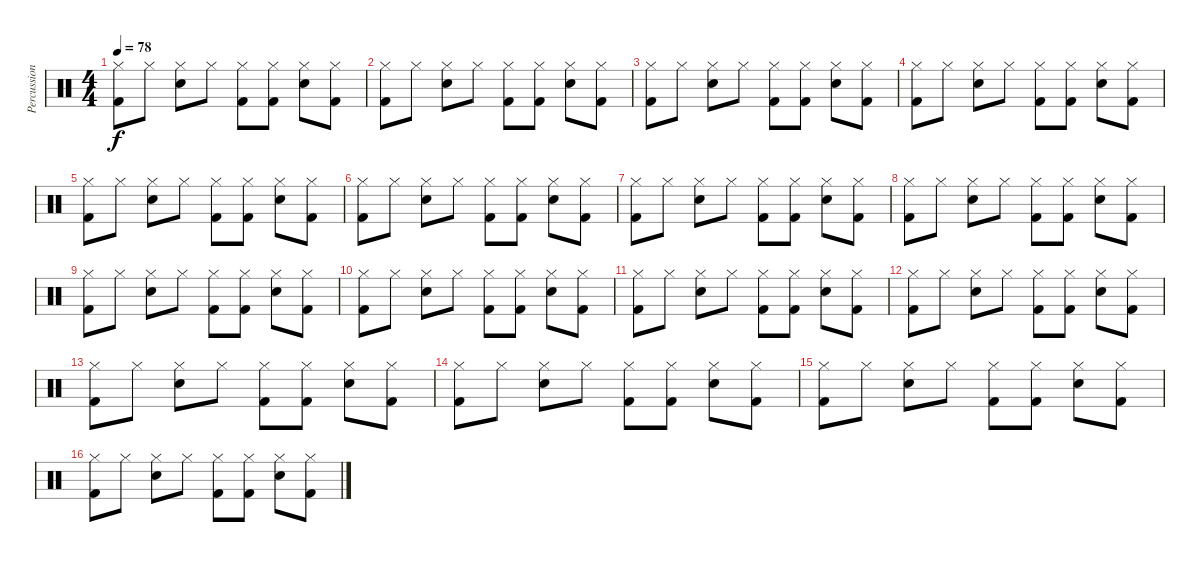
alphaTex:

\track ("Percussions" "Percussion") {instrument percussion}
\staff {score}
\articulation defaults
\ts (4 4)
\tempo 78
\clef neutral
\ks c
("Hi-Hat (closed)" "Kick (hit) 2").8{dy f} "Hi-Hat (closed)".8 ("Hi-Hat (closed)" "Electric Snare (hit)").8 "Hi-Hat (closed)".8 ("Hi-Hat (closed)" "Kick (hit) 2").8 ("Hi-Hat (closed)" "Kick (hit) 2").8 ("Hi-Hat (closed)" "Electric Snare (hit)").8 ("Hi-Hat (closed)" "Kick (hit) 2").8 |
("Hi-Hat (closed)" "Kick (hit) 2").8 "Hi-Hat (closed)".8 ("Hi-Hat (closed)" "Electric Snare (hit)").8 "Hi-Hat (closed)".8 ("Hi-Hat (closed)" "Kick (hit) 2").8 ("Hi-Hat (closed)" "Kick (hit) 2").8 ("Hi-Hat (closed)" "Electric Snare (hit)").8 ("Hi-Hat (closed)" "Kick (hit) 2").8 |
("Hi-Hat (closed)" "Kick (hit) 2").8 "Hi-Hat (closed)".8 ("Hi-Hat (closed)" "Electric Snare (hit)").8 "Hi-Hat (closed)".8 ("Hi-Hat (closed)" "Kick (hit) 2").8 ("Hi-Hat (closed)" "Kick (hit) 2").8 ("Hi-Hat (closed)" "Electric Snare (hit)").8 ("Hi-Hat (closed)" "Kick (hit) 2").8 |
("Hi-Hat (closed)" "Kick (hit) 2").8 "Hi-Hat (closed)".8 ("Hi-Hat (closed)" "Electric Snare (hit)").8 "Hi-Hat (closed)".8 ("Hi-Hat (closed)" "Kick (hit) 2").8 ("Hi-Hat (closed)" "Kick (hit) 2").8 ("Hi-Hat (closed)" "Electric Snare (hit)").8 ("Hi-Hat (closed)" "Kick (hit) 2").8 |
("Hi-Hat (closed)" "Kick (hit) 2").8 "Hi-Hat (closed)".8 ("Hi-Hat (closed)" "Electric Snare (hit)").8 "Hi-Hat (closed)".8 ("Hi-Hat (closed)" "Kick (hit) 2").8 ("Hi-Hat (closed)" "Kick (hit) 2").8 ("Hi-Hat (closed)" "Electric Snare (hit)").8 ("Hi-Hat (closed)" "Kick (hit) 2").8 |
("Hi-Hat (closed)" "Kick (hit) 2").8 "Hi-Hat (closed)".8 ("Hi-Hat (closed)" "Electric Snare (hit)").8 "Hi-Hat (closed)".8 ("Hi-Hat (closed)" "Kick (hit) 2").8 ("Hi-Hat (closed)" "Kick (hit) 2").8 ("Hi-Hat (closed)" "Electric Snare (hit)").8 ("Hi-Hat (closed)" "Kick (hit) 2").8 |
("Hi-Hat (closed)" "Kick (hit) 2").8 "Hi-Hat (closed)".8 ("Hi-Hat (closed)" "Electric Snare (hit)").8 "Hi-Hat (closed)".8 ("Hi-Hat (closed)" "Kick (hit) 2").8 ("Hi-Hat (closed)" "Kick (hit) 2").8 ("Hi-Hat (closed)" "Electric Snare (hit)").8 ("Hi-Hat (closed)" "Kick (hit) 2").8 |
("Hi-Hat (closed)" "Kick (hit) 2").8 "Hi-Hat (closed)".8 ("Hi-Hat (closed)" "Electric Snare (hit)").8 "Hi-Hat (closed)".8 ("Hi-Hat (closed)" "Kick (hit) 2").8 ("Hi-Hat (closed)" "Kick (hit) 2").8 ("Hi-Hat (closed)" "Electric Snare (hit)").8 ("Hi-Hat (closed)" "Kick (hit) 2").8 |
("Hi-Hat (closed)" "Kick (hit) 2").8 "Hi-Hat (closed)".8 ("Hi-Hat (closed)" "Electric Snare (hit)").8 "Hi-Hat (closed)".8 ("Hi-Hat (closed)" "Kick (hit) 2").8 ("Hi-Hat (closed)" "Kick (hit) 2").8 ("Hi-Hat (closed)" "Electric Snare (hit)").8 ("Hi-Hat (closed)" "Kick (hit) 2").8 |
("Hi-Hat (closed)" "Kick (hit) 2").8 "Hi-Hat (closed)".8 ("Hi-Hat (closed)" "Electric Snare (hit)").8 "Hi-Hat (closed)".8 ("Hi-Hat (closed)" "Kick (hit) 2").8 ("Hi-Hat (closed)" "Kick (hit) 2").8 ("Hi-Hat (closed)" "Electric Snare (hit)").8 ("Hi-Hat (closed)" "Kick (hit) 2").8 |
("Hi-Hat (closed)" "Kick (hit) 2").8 "Hi-Hat (closed)".8 ("Hi-Hat (closed)" "Electric Snare (hit)").8 "Hi-Hat (closed)".8 ("Hi-Hat (closed)" "Kick (hit) 2").8 ("Hi-Hat (closed)" "Kick (hit) 2").8 ("Hi-Hat (closed)" "Electric Snare (hit)").8 ("Hi-Hat (closed)" "Kick (hit) 2").8 |
("Hi-Hat (closed)" "Kick (hit) 2").8 "Hi-Hat (closed)".8 ("Hi-Hat (closed)" "Electric Snare (hit)").8 "Hi-Hat (closed)".8 ("Hi-Hat (closed)" "Kick (hit) 2").8 ("Hi-Hat (closed)" "Kick (hit) 2").8 ("Hi-Hat (closed)" "Electric Snare (hit)").8 ("Hi-Hat (closed)" "Kick (hit) 2").8 |
("Hi-Hat (closed)" "Kick (hit) 2").8 "Hi-Hat (closed)".8 ("Hi-Hat (closed)" "Electric Snare (hit)").8 "Hi-Hat (closed)".8 ("Hi-Hat (closed)" "Kick (hit) 2").8 ("Hi-Hat (closed)" "Kick (hit) 2").8 ("Hi-Hat (closed)" "Electric Snare (hit)").8 ("Hi-Hat (closed)" "Kick (hit) 2").8 |
("Hi-Hat (closed)" "Kick (hit) 2").8 "Hi-Hat (closed)".8 ("Hi-Hat (closed)" "Electric Snare (hit)").8 "Hi-Hat (closed)".8 ("Hi-Hat (closed)" "Kick (hit) 2").8 ("Hi-Hat (closed)" "Kick (hit) 2").8 ("Hi-Hat (closed)" "Electric Snare (hit)").8 ("Hi-Hat (closed)" "Kick (hit) 2").8 |
("Hi-Hat (closed)" "Kick (hit) 2").8 "Hi-Hat (closed)".8 ("Hi-Hat (closed)" "Electric Snare (hit)").8 "Hi-Hat (closed)".8 ("Hi-Hat (closed)" "Kick (hit) 2").8 ("Hi-Hat (closed)" "Kick (hit) 2").8 ("Hi-Hat (closed)" "Electric Snare (hit)").8 ("Hi-Hat (closed)" "Kick (hit) 2").8 |
("Hi-Hat (closed)" "Kick (hit) 2").8{volume 7} "Hi-Hat (closed)".8 ("Hi-Hat (closed)" "Electric Snare (hit)").8 "Hi-Hat (closed)".8 ("Hi-Hat (closed)" "Kick (hit) 2").8 ("Hi-Hat (closed)" "Kick (hit) 2").8 ("Hi-Hat (closed)" "Electric Snare (hit)").8 ("Hi-Hat (closed)" "Kick (hit) 2").8
